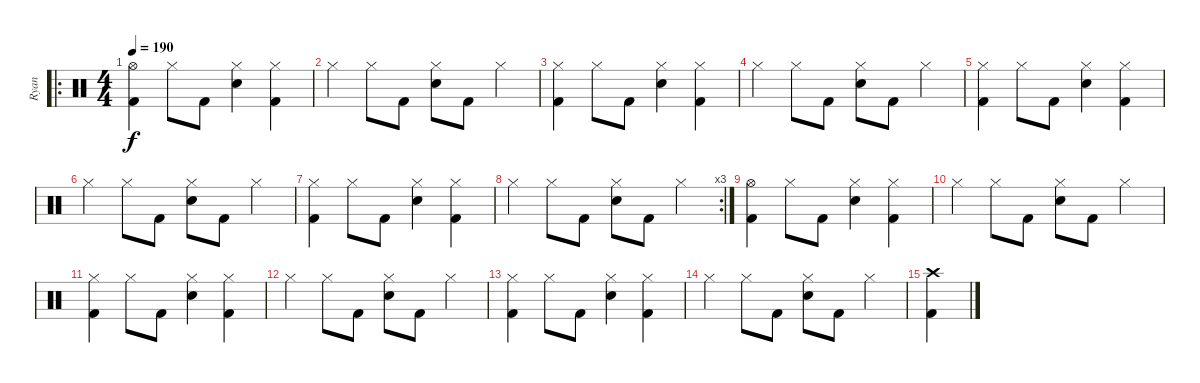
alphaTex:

\track ("Ryan" "Ryan") {instrument percussion}
\staff {score}
\articulation defaults
\ro
\ts (4 4)
\tempo 190
\clef neutral
\ks c
("Hi-Hat (open)" "Kick (hit) 2").4{dy f} "Hi-Hat (closed)".8 "Kick (hit) 2".8 ("Hi-Hat (closed)" "Snare (hit) 2").4 ("Hi-Hat (closed)" "Kick (hit) 2").4 |
"Hi-Hat (closed)".4 "Hi-Hat (closed)".8 "Kick (hit) 2".8 ("Hi-Hat (closed)" "Snare (hit) 2").8 "Kick (hit) 2".8 "Hi-Hat (closed)".4 |
("Hi-Hat (closed)" "Kick (hit) 2").4 "Hi-Hat (closed)".8 "Kick (hit) 2".8 ("Hi-Hat (closed)" "Snare (hit) 2").4 ("Hi-Hat (closed)" "Kick (hit) 2").4 |
"Hi-Hat (closed)".4 "Hi-Hat (closed)".8 "Kick (hit) 2".8 ("Hi-Hat (closed)" "Snare (hit) 2").8 "Kick (hit) 2".8 "Hi-Hat (closed)".4 |
("Hi-Hat (closed)" "Kick (hit) 2").4 "Hi-Hat (closed)".8 "Kick (hit) 2".8 ("Hi-Hat (closed)" "Snare (hit) 2").4 ("Hi-Hat (closed)" "Kick (hit) 2").4 |
"Hi-Hat (closed)".4 "Hi-Hat (closed)".8 "Kick (hit) 2".8 ("Hi-Hat (closed)" "Snare (hit) 2").8 "Kick (hit) 2".8 "Hi-Hat (closed)".4 |
("Hi-Hat (closed)" "Kick (hit) 2").4 "Hi-Hat (closed)".8 "Kick (hit) 2".8 ("Hi-Hat (closed)" "Snare (hit) 2").4 ("Hi-Hat (closed)" "Kick (hit) 2").4 |
\rc 3 "Hi-Hat (closed)".4 "Hi-Hat (closed)".8 "Kick (hit) 2".8
("Hi-Hat (closed)" "Snare (hit) 2").8 "Kick (hit) 2".8 "Hi-Hat (closed)".4 |
("Hi-Hat (open)" "Kick (hit) 2").4 "Hi-Hat (closed)".8 "Kick (hit) 2".8 ("Hi-Hat (closed)" "Snare (hit) 2").4 ("Hi-Hat (closed)" "Kick (hit) 2").4 |
"Hi-Hat (closed)".4 "Hi-Hat (closed)".8 "Kick (hit) 2".8 ("Hi-Hat (closed)" "Snare (hit) 2").8 "Kick (hit) 2".8 "Hi-Hat (closed)".4 |
("Hi-Hat (closed)" "Kick (hit) 2").4 "Hi-Hat (closed)".8 "Kick (hit) 2".8 ("Hi-Hat (closed)" "Snare (hit) 2").4 ("Hi-Hat (closed)" "Kick (hit) 2").4 |
"Hi-Hat (closed)".4 "Hi-Hat (closed)".8 "Kick (hit) 2".8 ("Hi-Hat (closed)" "Snare (hit) 2").8 "Kick (hit) 2".8 "Hi-Hat (closed)".4 |
("Hi-Hat (closed)" "Kick (hit) 2").4 "Hi-Hat (closed)".8 "Kick (hit) 2".8 ("Hi-Hat (closed)" "Snare (hit) 2").4 ("Hi-Hat (closed)" "Kick (hit) 2").4 |
"Hi-Hat (closed)".4 "Hi-Hat (closed)".8 "Kick (hit) 2".8 ("Hi-Hat (closed)" "Snare (hit) 2").8 "Kick (hit) 2".8 "Hi-Hat (closed)".4 |
("Crash high (hit)" "Kick (hit) 2").4
